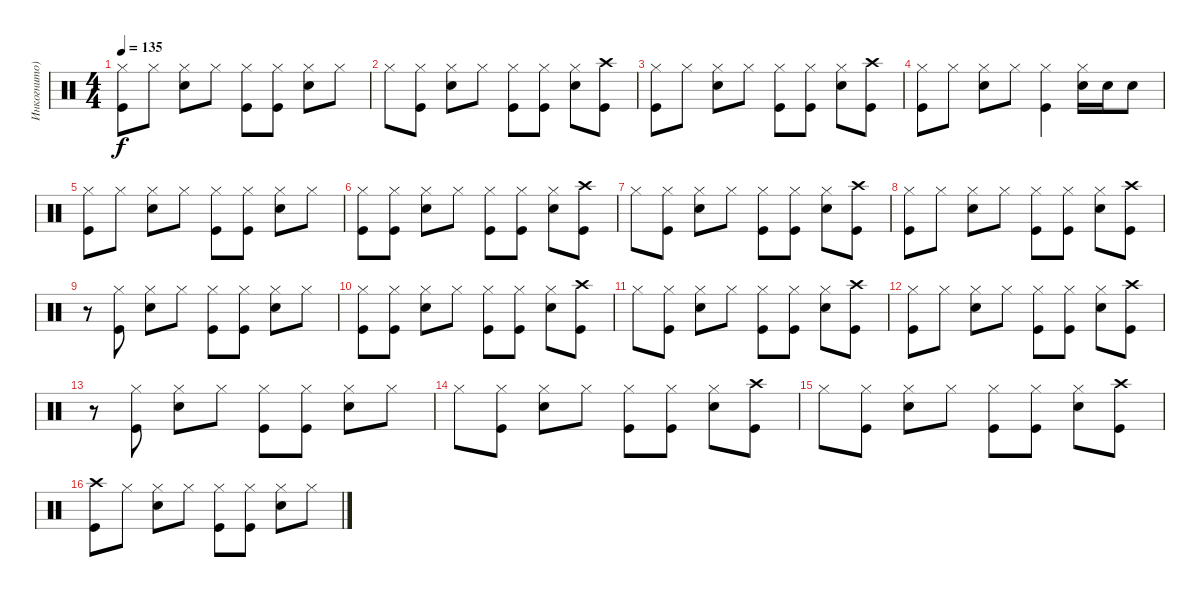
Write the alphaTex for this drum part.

\track ("Инкогнито)" "Инкогнито)") {instrument percussion}
\staff {score}
\articulation defaults
\ts (4 4)
\tempo 135
\clef neutral
\ks c
("Hi-Hat (closed)" "Kick (hit)").8{dy f} "Hi-Hat (closed)".8 ("Hi-Hat (closed)" "Snare (hit) 2").8 "Hi-Hat (closed)".8 ("Hi-Hat (closed)" "Kick (hit)").8 ("Hi-Hat (closed)" "Kick (hit)").8 ("Hi-Hat (closed)" "Snare (hit) 2").8 "Hi-Hat (closed)".8 |
"Hi-Hat (closed)".8 ("Hi-Hat (closed)" "Kick (hit)").8 ("Hi-Hat (closed)" "Snare (hit) 2").8 "Hi-Hat (closed)".8 ("Hi-Hat (closed)" "Kick (hit)").8 ("Hi-Hat (closed)" "Kick (hit)").8 ("Hi-Hat (closed)" "Snare (hit) 2").8 ("Crash high (hit)" "Kick (hit)").8 |
("Hi-Hat (closed)" "Kick (hit)").8 "Hi-Hat (closed)".8 ("Hi-Hat (closed)" "Snare (hit) 2").8 "Hi-Hat (closed)".8 ("Hi-Hat (closed)" "Kick (hit)").8 ("Hi-Hat (closed)" "Kick (hit)").8 ("Hi-Hat (closed)" "Snare (hit) 2").8 ("Crash high (hit)" "Kick (hit)").8 |
("Hi-Hat (closed)" "Kick (hit)").8 "Hi-Hat (closed)".8 ("Hi-Hat (closed)" "Snare (hit) 2").8 "Hi-Hat (closed)".8 ("Hi-Hat (closed)" "Kick (hit)").4 ("Hi-Hat (closed)" "Snare (hit) 2").16 "Snare (hit) 2".16 "Snare (hit) 2".8 |
("Hi-Hat (closed)" "Kick (hit)").8 "Hi-Hat (closed)".8 ("Hi-Hat (closed)" "Snare (hit) 2").8 "Hi-Hat (closed)".8 ("Hi-Hat (closed)" "Kick (hit)").8 ("Hi-Hat (closed)" "Kick (hit)").8 ("Hi-Hat (closed)" "Snare (hit) 2").8 "Hi-Hat (closed)".8 |
("Hi-Hat (closed)" "Kick (hit)").8 ("Hi-Hat (closed)" "Kick (hit)").8 ("Hi-Hat (closed)" "Snare (hit) 2").8 "Hi-Hat (closed)".8 ("Hi-Hat (closed)" "Kick (hit)").8 ("Hi-Hat (closed)" "Kick (hit)").8 ("Hi-Hat (closed)" "Snare (hit) 2").8 ("Crash high (hit)" "Kick (hit)").8 |
"Hi-Hat (closed)".8 ("Hi-Hat (closed)" "Kick (hit)").8 ("Hi-Hat (closed)" "Snare (hit) 2").8 "Hi-Hat (closed)".8 ("Hi-Hat (closed)" "Kick (hit)").8 ("Hi-Hat (closed)" "Kick (hit)").8 ("Hi-Hat (closed)" "Snare (hit) 2").8 ("Crash high (hit)" "Kick (hit)").8 |
("Hi-Hat (closed)" "Kick (hit)").8 "Hi-Hat (closed)".8 ("Hi-Hat (closed)" "Snare (hit) 2").8 "Hi-Hat (closed)".8 ("Hi-Hat (closed)" "Kick (hit)").8 ("Hi-Hat (closed)" "Kick (hit)").8 ("Hi-Hat (closed)" "Snare (hit) 2").8 ("Crash high (hit)" "Kick (hit)").8 |
r.8 ("Hi-Hat (closed)" "Kick (hit)").8 ("Hi-Hat (closed)" "Snare (hit) 2").8 "Hi-Hat (closed)".8 ("Hi-Hat (closed)" "Kick (hit)").8 ("Hi-Hat (closed)" "Kick (hit)").8 ("Hi-Hat (closed)" "Snare (hit) 2").8 "Hi-Hat (closed)".8 |
("Hi-Hat (closed)" "Kick (hit)").8 ("Hi-Hat (closed)" "Kick (hit)").8 ("Hi-Hat (closed)" "Snare (hit) 2").8 "Hi-Hat (closed)".8 ("Hi-Hat (closed)" "Kick (hit)").8 ("Hi-Hat (closed)" "Kick (hit)").8 ("Hi-Hat (closed)" "Snare (hit) 2").8 ("Crash high (hit)" "Kick (hit)").8 |
"Hi-Hat (closed)".8 ("Hi-Hat (closed)" "Kick (hit)").8 ("Hi-Hat (closed)" "Snare (hit) 2").8 "Hi-Hat (closed)".8 ("Hi-Hat (closed)" "Kick (hit)").8 ("Hi-Hat (closed)" "Kick (hit)").8 ("Hi-Hat (closed)" "Snare (hit) 2").8 ("Crash high (hit)" "Kick (hit)").8 |
("Hi-Hat (closed)" "Kick (hit)").8 "Hi-Hat (closed)".8 ("Hi-Hat (closed)" "Snare (hit) 2").8 "Hi-Hat (closed)".8 ("Hi-Hat (closed)" "Kick (hit)").8 ("Hi-Hat (closed)" "Kick (hit)").8 ("Hi-Hat (closed)" "Snare (hit) 2").8 ("Crash high (hit)" "Kick (hit)").8 |
r.8 ("Hi-Hat (closed)" "Kick (hit)").8 ("Hi-Hat (closed)" "Snare (hit) 2").8 "Hi-Hat (closed)".8 ("Hi-Hat (closed)" "Kick (hit)").8 ("Hi-Hat (closed)" "Kick (hit)").8 ("Hi-Hat (closed)" "Snare (hit) 2").8 "Hi-Hat (closed)".8 |
"Hi-Hat (closed)".8 ("Hi-Hat (closed)" "Kick (hit)").8 ("Hi-Hat (closed)" "Snare (hit) 2").8 "Hi-Hat (closed)".8 ("Hi-Hat (closed)" "Kick (hit)").8 ("Hi-Hat (closed)" "Kick (hit)").8 ("Hi-Hat (closed)" "Snare (hit) 2").8 ("Crash high (hit)" "Kick (hit)").8 |
"Hi-Hat (closed)".8 ("Hi-Hat (closed)" "Kick (hit)").8 ("Hi-Hat (closed)" "Snare (hit) 2").8 "Hi-Hat (closed)".8 ("Hi-Hat (closed)" "Kick (hit)").8 ("Hi-Hat (closed)" "Kick (hit)").8 ("Hi-Hat (closed)" "Snare (hit) 2").8 ("Crash high (hit)" "Kick (hit)").8 |
("Crash high (hit)" "Kick (hit)").8 "Hi-Hat (closed)".8 ("Hi-Hat (closed)" "Snare (hit) 2").8 "Hi-Hat (closed)".8 ("Hi-Hat (closed)" "Kick (hit)").8 ("Hi-Hat (closed)" "Kick (hit)").8 ("Hi-Hat (closed)" "Snare (hit) 2").8 "Hi-Hat (closed)".8
